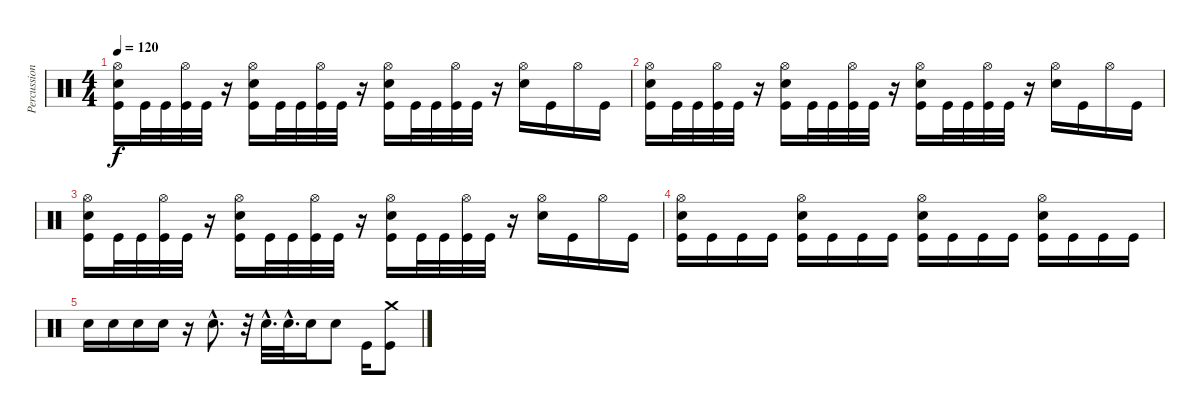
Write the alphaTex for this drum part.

\track ("Percussion" "Percussion") {instrument percussion}
\staff {score}
\articulation defaults
\ts (4 4)
\tempo 120
\clef neutral
\ks c
("Hi-Hat (open)" "Electric Snare (hit)" "Kick (hit)").16{dy f} "Kick (hit)".32 "Kick (hit)".32 ("Hi-Hat (open)" "Kick (hit)").32 "Kick (hit)".32 r.16 ("Hi-Hat (open)" "Electric Snare (hit)" "Kick (hit)").16 "Kick (hit)".32 "Kick (hit)".32 ("Hi-Hat (open)" "Kick (hit)").32 "Kick (hit)".32 r.16 ("Hi-Hat (open)" "Electric Snare (hit)" "Kick (hit)").16 "Kick (hit)".32 "Kick (hit)".32 ("Hi-Hat (open)" "Kick (hit)").32 "Kick (hit)".32 r.16 ("Hi-Hat (open)" "Electric Snare (hit)").16 "Kick (hit)".16 "Hi-Hat (open)".16 "Kick (hit)".16 |
("Hi-Hat (open)" "Electric Snare (hit)" "Kick (hit)").16 "Kick (hit)".32 "Kick (hit)".32 ("Hi-Hat (open)" "Kick (hit)").32 "Kick (hit)".32 r.16 ("Hi-Hat (open)" "Electric Snare (hit)" "Kick (hit)").16 "Kick (hit)".32 "Kick (hit)".32 ("Hi-Hat (open)" "Kick (hit)").32 "Kick (hit)".32 r.16 ("Hi-Hat (open)" "Electric Snare (hit)" "Kick (hit)").16 "Kick (hit)".32 "Kick (hit)".32 ("Hi-Hat (open)" "Kick (hit)").32 "Kick (hit)".32 r.16 ("Hi-Hat (open)" "Electric Snare (hit)").16 "Kick (hit)".16 "Hi-Hat (open)".16 "Kick (hit)".16 |
("Hi-Hat (open)" "Electric Snare (hit)" "Kick (hit)").16 "Kick (hit)".32 "Kick (hit)".32 ("Hi-Hat (open)" "Kick (hit)").32 "Kick (hit)".32 r.16 ("Hi-Hat (open)" "Electric Snare (hit)" "Kick (hit)").16 "Kick (hit)".32 "Kick (hit)".32 ("Hi-Hat (open)" "Kick (hit)").32 "Kick (hit)".32 r.16 ("Hi-Hat (open)" "Electric Snare (hit)" "Kick (hit)").16 "Kick (hit)".32 "Kick (hit)".32 ("Hi-Hat (open)" "Kick (hit)").32 "Kick (hit)".32 r.16 ("Hi-Hat (open)" "Electric Snare (hit)").16 "Kick (hit)".16 "Hi-Hat (open)".16 "Kick (hit)".16 |
("Hi-Hat (open)" "Electric Snare (hit)" "Kick (hit)").16 "Kick (hit)".16 "Kick (hit)".16 "Kick (hit)".16 ("Hi-Hat (open)" "Electric Snare (hit)" "Kick (hit)").16 "Kick (hit)".16 "Kick (hit)".16 "Kick (hit)".16 ("Hi-Hat (open)" "Electric Snare (hit)" "Kick (hit)").16 "Kick (hit)".16 "Kick (hit)".16 "Kick (hit)".16 ("Hi-Hat (open)" "Electric Snare (hit)" "Kick (hit)").16 "Kick (hit)".16 "Kick (hit)".16 "Kick (hit)".16 |
"Electric Snare (hit)".16 "Electric Snare (hit)".16 "Electric Snare (hit)".16 "Electric Snare (hit)".16 r.16 "Electric Snare (hit)"{hac}.8{d} r.32 "Electric Snare (hit)"{hac}.32{d} "Electric Snare (hit)"{hac}.32{d} "Electric Snare (hit)".16 "Electric Snare (hit)".8 "Kick (hit)".16 ("Kick (hit)" "Crash medium (hit)").8
